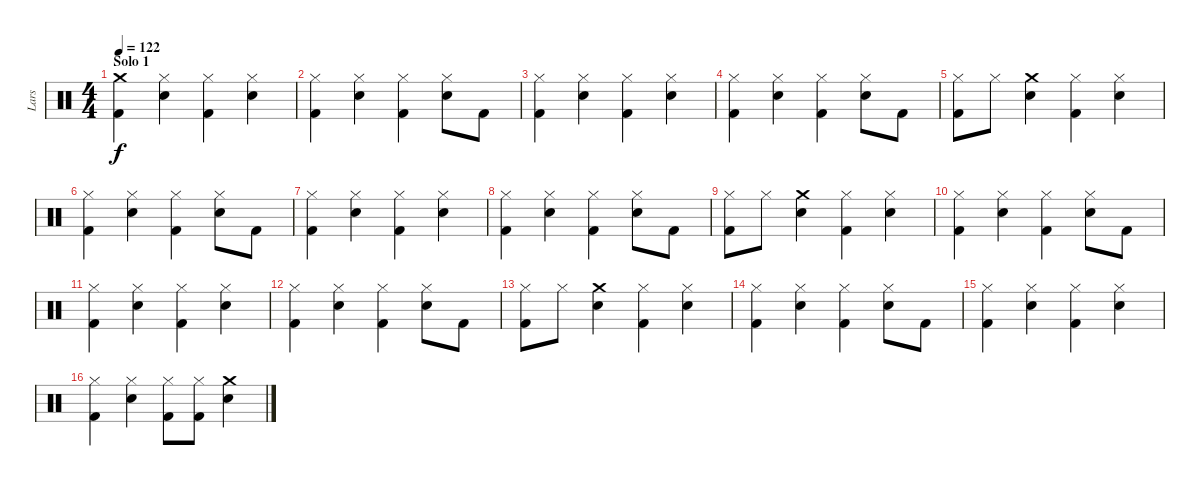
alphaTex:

\track ("Lars" "Lars") {instrument percussion}
\staff {score}
\articulation defaults
\ts (4 4)
\section ("" "Solo 1")
\tempo 122
\clef neutral
\ks c
("Crash medium (hit)" "Kick (hit) 2").4{dy f} ("Hi-Hat (closed)" "Snare (hit) 2").4 ("Hi-Hat (closed)" "Kick (hit) 2").4 ("Hi-Hat (closed)" "Snare (hit) 2").4 |
("Hi-Hat (closed)" "Kick (hit) 2").4 ("Hi-Hat (closed)" "Snare (hit) 2").4 ("Hi-Hat (closed)" "Kick (hit) 2").4 ("Hi-Hat (closed)" "Snare (hit) 2").8 "Kick (hit) 2".8 |
("Hi-Hat (closed)" "Kick (hit) 2").4 ("Hi-Hat (closed)" "Snare (hit) 2").4 ("Hi-Hat (closed)" "Kick (hit) 2").4 ("Hi-Hat (closed)" "Snare (hit) 2").4 |
("Hi-Hat (closed)" "Kick (hit) 2").4 ("Hi-Hat (closed)" "Snare (hit) 2").4 ("Hi-Hat (closed)" "Kick (hit) 2").4 ("Hi-Hat (closed)" "Snare (hit) 2").8 "Kick (hit) 2".8 |
("Hi-Hat (closed)" "Kick (hit) 2").8 "Hi-Hat (closed)".8 ("Crash medium (hit)" "Snare (hit) 2").4 ("Hi-Hat (closed)" "Kick (hit) 2").4 ("Hi-Hat (closed)" "Snare (hit) 2").4 |
("Hi-Hat (closed)" "Kick (hit) 2").4 ("Hi-Hat (closed)" "Snare (hit) 2").4 ("Hi-Hat (closed)" "Kick (hit) 2").4 ("Hi-Hat (closed)" "Snare (hit) 2").8 "Kick (hit) 2".8 |
("Hi-Hat (closed)" "Kick (hit) 2").4 ("Hi-Hat (closed)" "Snare (hit) 2").4 ("Hi-Hat (closed)" "Kick (hit) 2").4 ("Hi-Hat (closed)" "Snare (hit) 2").4 |
("Hi-Hat (closed)" "Kick (hit) 2").4 ("Hi-Hat (closed)" "Snare (hit) 2").4 ("Hi-Hat (closed)" "Kick (hit) 2").4 ("Hi-Hat (closed)" "Snare (hit) 2").8 "Kick (hit) 2".8 |
("Hi-Hat (closed)" "Kick (hit) 2").8 "Hi-Hat (closed)".8 ("Crash medium (hit)" "Snare (hit) 2").4 ("Hi-Hat (closed)" "Kick (hit) 2").4 ("Hi-Hat (closed)" "Snare (hit) 2").4 |
("Hi-Hat (closed)" "Kick (hit) 2").4 ("Hi-Hat (closed)" "Snare (hit) 2").4 ("Hi-Hat (closed)" "Kick (hit) 2").4 ("Hi-Hat (closed)" "Snare (hit) 2").8 "Kick (hit) 2".8 |
("Hi-Hat (closed)" "Kick (hit) 2").4 ("Hi-Hat (closed)" "Snare (hit) 2").4 ("Hi-Hat (closed)" "Kick (hit) 2").4 ("Hi-Hat (closed)" "Snare (hit) 2").4 |
("Hi-Hat (closed)" "Kick (hit) 2").4 ("Hi-Hat (closed)" "Snare (hit) 2").4 ("Hi-Hat (closed)" "Kick (hit) 2").4 ("Hi-Hat (closed)" "Snare (hit) 2").8 "Kick (hit) 2".8 |
("Hi-Hat (closed)" "Kick (hit) 2").8 "Hi-Hat (closed)".8 ("Crash medium (hit)" "Snare (hit) 2").4 ("Hi-Hat (closed)" "Kick (hit) 2").4 ("Hi-Hat (closed)" "Snare (hit) 2").4 |
("Hi-Hat (closed)" "Kick (hit) 2").4 ("Hi-Hat (closed)" "Snare (hit) 2").4 ("Hi-Hat (closed)" "Kick (hit) 2").4 ("Hi-Hat (closed)" "Snare (hit) 2").8 "Kick (hit) 2".8 |
("Hi-Hat (closed)" "Kick (hit) 2").4 ("Hi-Hat (closed)" "Snare (hit) 2").4 ("Hi-Hat (closed)" "Kick (hit) 2").4 ("Hi-Hat (closed)" "Snare (hit) 2").4 |
("Hi-Hat (closed)" "Kick (hit) 2").4 ("Hi-Hat (closed)" "Snare (hit) 2").4 ("Hi-Hat (closed)" "Kick (hit) 2").8 ("Hi-Hat (closed)" "Kick (hit) 2").8 ("Crash medium (hit)" "Snare (hit) 2").4
